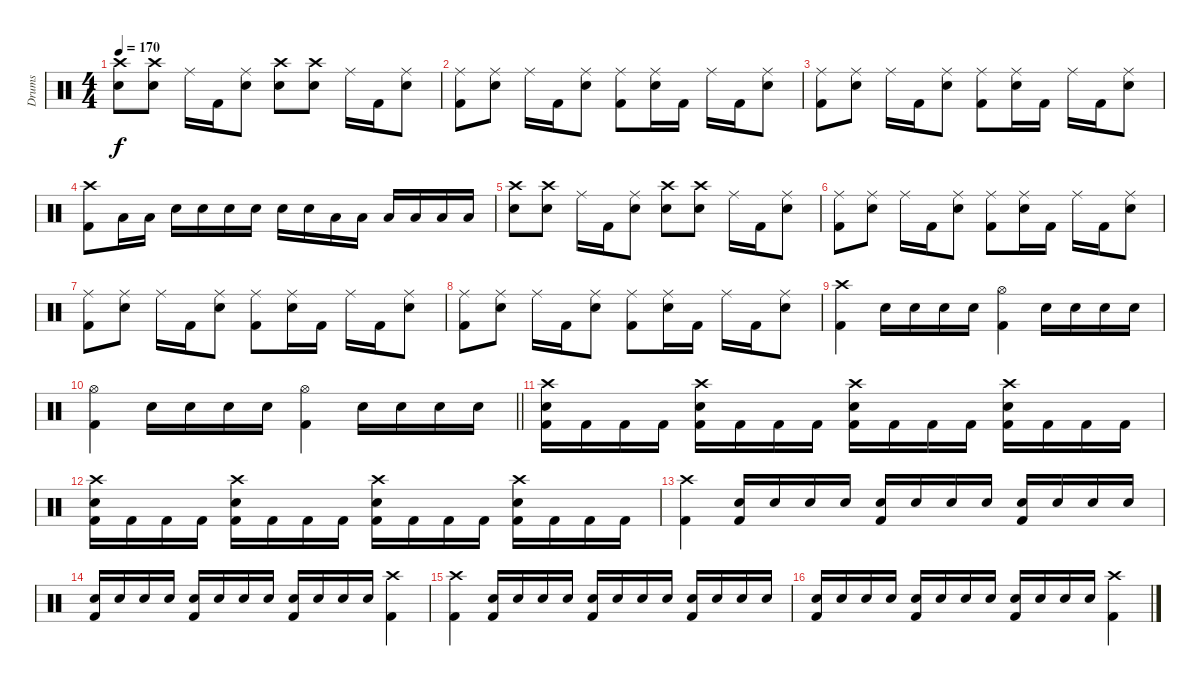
\track ("Drums" "Drums") {instrument percussion}
\staff {score}
\articulation defaults
\ts (4 4)
\tempo 170
\clef neutral
\ks c
("Crash high (hit)" "Snare (hit) 2").8{dy f} ("Crash high (hit)" "Snare (hit) 2").8 "Ride (middle)".16 "Kick (hit) 2".16 ("Ride (middle)" "Snare (hit) 2").8 ("Crash high (hit)" "Snare (hit) 2").8 ("Crash high (hit)" "Snare (hit) 2").8 "Ride (middle)".16 "Kick (hit) 2".16 ("Ride (middle)" "Snare (hit) 2").8 |
("Ride (middle)" "Kick (hit) 2").8 ("Ride (middle)" "Snare (hit) 2").8 "Ride (middle)".16 "Kick (hit) 2".16 ("Ride (middle)" "Snare (hit) 2").8 ("Ride (middle)" "Kick (hit) 2").8 ("Ride (middle)" "Snare (hit) 2").16 "Kick (hit) 2".16 "Ride (middle)".16 "Kick (hit) 2".16 ("Ride (middle)" "Snare (hit) 2").8 |
("Ride (middle)" "Kick (hit) 2").8 ("Ride (middle)" "Snare (hit) 2").8 "Ride (middle)".16 "Kick (hit) 2".16 ("Ride (middle)" "Snare (hit) 2").8 ("Ride (middle)" "Kick (hit) 2").8 ("Ride (middle)" "Snare (hit) 2").16 "Kick (hit) 2".16 "Ride (middle)".16 "Kick (hit) 2".16 ("Ride (middle)" "Snare (hit) 2").8 |
("Crash high (hit)" "Kick (hit) 2").8 "Low Tom (hit)".16 "Low Tom (hit)".16 "Snare (hit) 2".16 "Snare (hit) 2".16 "Snare (hit) 2".16 "Snare (hit) 2".16 "Snare (hit) 2".16 "Snare (hit) 2".16 "Low Tom (hit)".16 "Low Tom (hit)".16 "Low Floor Tom (hit)".16 "Low Floor Tom (hit)".16 "Low Floor Tom (hit)".16 "Low Floor Tom (hit)".16 |
("Crash high (hit)" "Snare (hit) 2").8 ("Crash high (hit)" "Snare (hit) 2").8 "Ride (middle)".16 "Kick (hit) 2".16 ("Ride (middle)" "Snare (hit) 2").8 ("Crash high (hit)" "Snare (hit) 2").8 ("Crash high (hit)" "Snare (hit) 2").8 "Ride (middle)".16 "Kick (hit) 2".16 ("Ride (middle)" "Snare (hit) 2").8 |
("Ride (middle)" "Kick (hit) 2").8 ("Ride (middle)" "Snare (hit) 2").8 "Ride (middle)".16 "Kick (hit) 2".16 ("Ride (middle)" "Snare (hit) 2").8 ("Ride (middle)" "Kick (hit) 2").8 ("Ride (middle)" "Snare (hit) 2").16 "Kick (hit) 2".16 "Ride (middle)".16 "Kick (hit) 2".16 ("Ride (middle)" "Snare (hit) 2").8 |
("Ride (middle)" "Kick (hit) 2").8 ("Ride (middle)" "Snare (hit) 2").8 "Ride (middle)".16 "Kick (hit) 2".16 ("Ride (middle)" "Snare (hit) 2").8 ("Ride (middle)" "Kick (hit) 2").8 ("Ride (middle)" "Snare (hit) 2").16 "Kick (hit) 2".16 "Ride (middle)".16 "Kick (hit) 2".16 ("Ride (middle)" "Snare (hit) 2").8 |
("Ride (middle)" "Kick (hit) 2").8 ("Ride (middle)" "Snare (hit) 2").8 "Ride (middle)".16 "Kick (hit) 2".16 ("Ride (middle)" "Snare (hit) 2").8 ("Ride (middle)" "Kick (hit) 2").8 ("Ride (middle)" "Snare (hit) 2").16 "Kick (hit) 2".16 "Ride (middle)".16 "Kick (hit) 2".16 ("Ride (middle)" "Snare (hit) 2").8 |
("Crash high (hit)" "Kick (hit) 2").4 "Snare (hit) 2".16 "Snare (hit) 2".16 "Snare (hit) 2".16 "Snare (hit) 2".16 ("Hi-Hat (open)" "Kick (hit) 2").4 "Snare (hit) 2".16 "Snare (hit) 2".16 "Snare (hit) 2".16 "Snare (hit) 2".16 |
\barLineRight lightlight
("Hi-Hat (open)" "Kick (hit) 2").4 "Snare (hit) 2".16 "Snare (hit) 2".16 "Snare (hit) 2".16 "Snare (hit) 2".16 ("Hi-Hat (open)" "Kick (hit) 2").4 "Snare (hit) 2".16 "Snare (hit) 2".16 "Snare (hit) 2".16 "Snare (hit) 2".16 |
("Crash high (hit)" "Snare (hit) 2" "Kick (hit) 2").16 "Kick (hit) 2".16 "Kick (hit) 2".16 "Kick (hit) 2".16 ("Crash high (hit)" "Snare (hit) 2" "Kick (hit) 2").16 "Kick (hit) 2".16 "Kick (hit) 2".16 "Kick (hit) 2".16 ("Crash high (hit)" "Snare (hit) 2" "Kick (hit) 2").16 "Kick (hit) 2".16 "Kick (hit) 2".16 "Kick (hit) 2".16 ("Crash high (hit)" "Snare (hit) 2" "Kick (hit) 2").16 "Kick (hit) 2".16 "Kick (hit) 2".16 "Kick (hit) 2".16 |
("Crash high (hit)" "Snare (hit) 2" "Kick (hit) 2").16 "Kick (hit) 2".16 "Kick (hit) 2".16 "Kick (hit) 2".16 ("Crash high (hit)" "Snare (hit) 2" "Kick (hit) 2").16 "Kick (hit) 2".16 "Kick (hit) 2".16 "Kick (hit) 2".16 ("Crash high (hit)" "Snare (hit) 2" "Kick (hit) 2").16 "Kick (hit) 2".16 "Kick (hit) 2".16 "Kick (hit) 2".16 ("Crash high (hit)" "Snare (hit) 2" "Kick (hit) 2").16 "Kick (hit) 2".16 "Kick (hit) 2".16 "Kick (hit) 2".16 |
("Crash high (hit)" "Kick (hit) 2").4 ("Snare (hit) 2" "Kick (hit) 2").16 "Snare (hit) 2".16 "Snare (hit) 2".16 "Snare (hit) 2".16 ("Snare (hit) 2" "Kick (hit) 2").16 "Snare (hit) 2".16 "Snare (hit) 2".16 "Snare (hit) 2".16 ("Snare (hit) 2" "Kick (hit) 2").16 "Snare (hit) 2".16 "Snare (hit) 2".16 "Snare (hit) 2".16 |
("Snare (hit) 2" "Kick (hit) 2").16 "Snare (hit) 2".16 "Snare (hit) 2".16 "Snare (hit) 2".16 ("Snare (hit) 2" "Kick (hit) 2").16 "Snare (hit) 2".16 "Snare (hit) 2".16 "Snare (hit) 2".16 ("Snare (hit) 2" "Kick (hit) 2").16 "Snare (hit) 2".16 "Snare (hit) 2".16 "Snare (hit) 2".16 ("Crash high (hit)" "Kick (hit) 2").4 |
("Crash high (hit)" "Kick (hit) 2").4 ("Snare (hit) 2" "Kick (hit) 2").16 "Snare (hit) 2".16 "Snare (hit) 2".16 "Snare (hit) 2".16 ("Snare (hit) 2" "Kick (hit) 2").16 "Snare (hit) 2".16 "Snare (hit) 2".16 "Snare (hit) 2".16 ("Snare (hit) 2" "Kick (hit) 2").16 "Snare (hit) 2".16 "Snare (hit) 2".16 "Snare (hit) 2".16 |
("Snare (hit) 2" "Kick (hit) 2").16 "Snare (hit) 2".16 "Snare (hit) 2".16 "Snare (hit) 2".16 ("Snare (hit) 2" "Kick (hit) 2").16 "Snare (hit) 2".16 "Snare (hit) 2".16 "Snare (hit) 2".16 ("Snare (hit) 2" "Kick (hit) 2").16 "Snare (hit) 2".16 "Snare (hit) 2".16 "Snare (hit) 2".16 ("Crash high (hit)" "Kick (hit) 2").4
